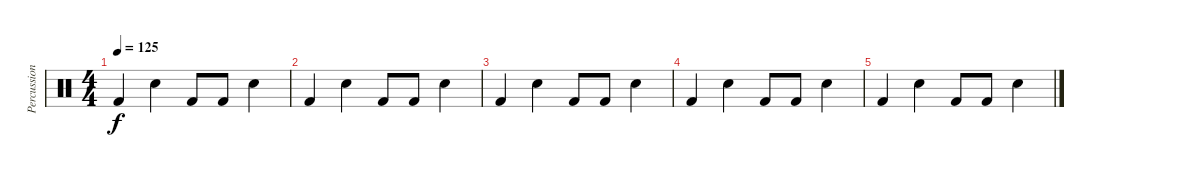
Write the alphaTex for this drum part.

\track ("Percussion" "Percussion") {instrument percussion}
\staff {score}
\articulation defaults
\ts (4 4)
\tempo 125
\clef neutral
\ks c "Kick (hit) 2".4{dy f} "Snare (hit) 2".4 "Kick (hit) 2".8 "Kick (hit) 2".8 "Snare (hit) 2".4
|
"Kick (hit) 2".4 "Snare (hit) 2".4 "Kick (hit) 2".8 "Kick (hit) 2".8 "Snare (hit) 2".4 |
"Kick (hit) 2".4 "Snare (hit) 2".4 "Kick (hit) 2".8 "Kick (hit) 2".8 "Snare (hit) 2".4 |
"Kick (hit) 2".4 "Snare (hit) 2".4 "Kick (hit) 2".8 "Kick (hit) 2".8 "Snare (hit) 2".4 |
"Kick (hit) 2".4 "Snare (hit) 2".4 "Kick (hit) 2".8 "Kick (hit) 2".8 "Snare (hit) 2".4
